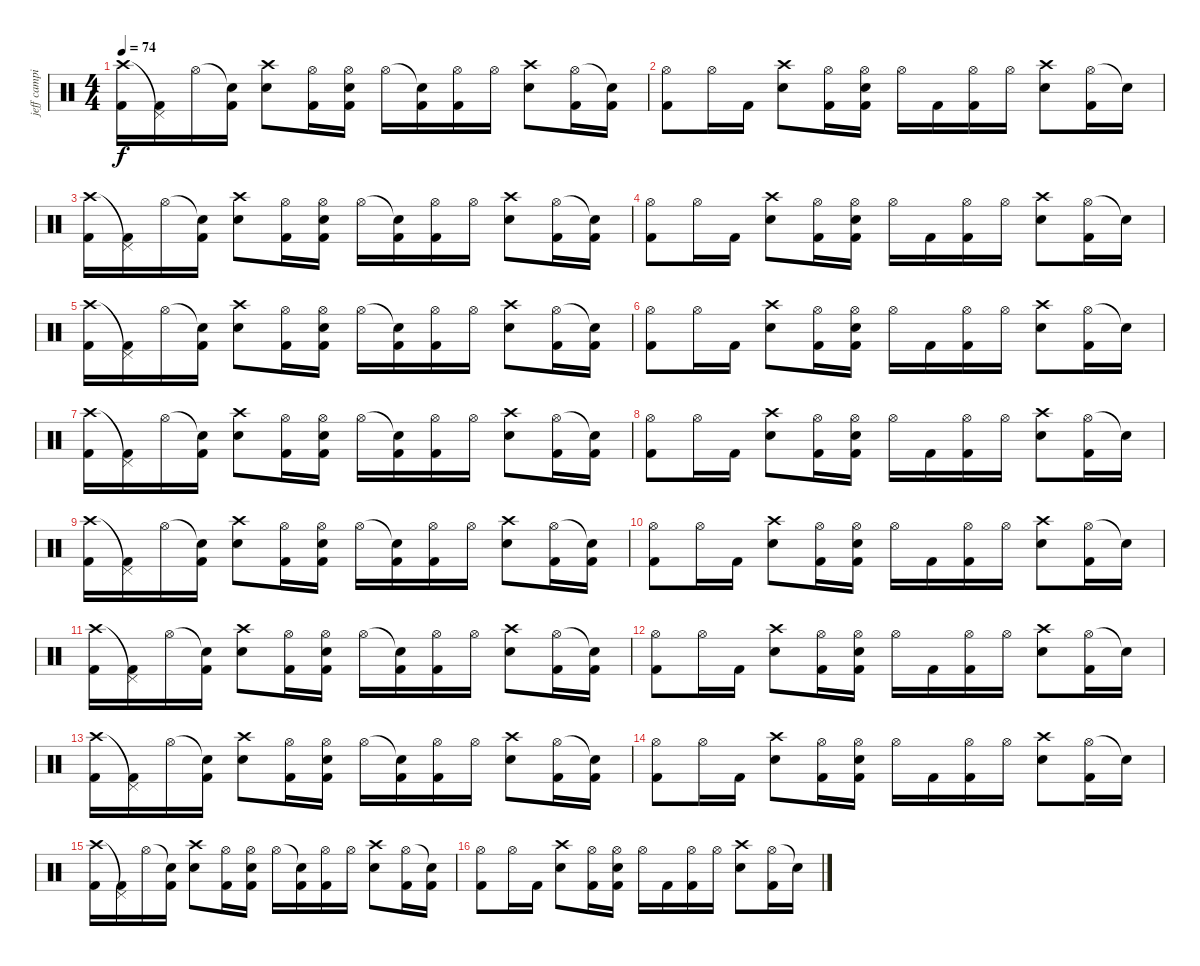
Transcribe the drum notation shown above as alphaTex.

\track ("jeff campitelli" "jeff campi") {instrument percussion}
\staff {score}
\articulation defaults
\ts (4 4)
\tempo 74
\clef neutral
\ks c
("Crash high (hit)" "Kick (hit) 2").16{dy f} ("Pedal Hi-Hat (hit)"{t} "Kick (hit) 2").16 "Hi-Hat (open)".16 ("Snare (hit)"{t} "Kick (hit) 2").16 ("Crash high (hit)" "Electric Snare (hit)").8 ("Hi-Hat (open)" "Kick (hit) 2").16 ("Hi-Hat (open)" "Electric Snare (hit)" "Kick (hit) 2").16 "Hi-Hat (open)".16 ("Snare (hit)"{t} "Kick (hit) 2").16 ("Hi-Hat (open)" "Kick (hit) 2").16 "Hi-Hat (open)".16 ("Crash high (hit)" "Electric Snare (hit)").8 ("Hi-Hat (open)" "Kick (hit) 2").16 ("Snare (hit)"{t} "Kick (hit) 2").16 |
("Hi-Hat (open)" "Kick (hit) 2").8 "Hi-Hat (open)".16 "Kick (hit) 2".16 ("Crash high (hit)" "Electric Snare (hit)").8 ("Hi-Hat (open)" "Kick (hit) 2").16 ("Hi-Hat (open)" "Electric Snare (hit)" "Kick (hit) 2").16 "Hi-Hat (open)".16 "Kick (hit) 2".16 ("Hi-Hat (open)" "Kick (hit) 2").16 "Hi-Hat (open)".16 ("Crash high (hit)" "Electric Snare (hit)").8 ("Hi-Hat (open)" "Kick (hit) 2").16 "Snare (hit)"{t}.16 |
("Crash high (hit)" "Kick (hit) 2").16 ("Pedal Hi-Hat (hit)"{t} "Kick (hit) 2").16 "Hi-Hat (open)".16 ("Snare (hit)"{t} "Kick (hit) 2").16 ("Crash high (hit)" "Electric Snare (hit)").8 ("Hi-Hat (open)" "Kick (hit) 2").16 ("Hi-Hat (open)" "Electric Snare (hit)" "Kick (hit) 2").16 "Hi-Hat (open)".16 ("Snare (hit)"{t} "Kick (hit) 2").16 ("Hi-Hat (open)" "Kick (hit) 2").16 "Hi-Hat (open)".16 ("Crash high (hit)" "Electric Snare (hit)").8 ("Hi-Hat (open)" "Kick (hit) 2").16 ("Snare (hit)"{t} "Kick (hit) 2").16 |
("Hi-Hat (open)" "Kick (hit) 2").8 "Hi-Hat (open)".16 "Kick (hit) 2".16 ("Crash high (hit)" "Electric Snare (hit)").8 ("Hi-Hat (open)" "Kick (hit) 2").16 ("Hi-Hat (open)" "Electric Snare (hit)" "Kick (hit) 2").16 "Hi-Hat (open)".16 "Kick (hit) 2".16 ("Hi-Hat (open)" "Kick (hit) 2").16 "Hi-Hat (open)".16 ("Crash high (hit)" "Electric Snare (hit)").8 ("Hi-Hat (open)" "Kick (hit) 2").16 "Snare (hit)"{t}.16 |
("Crash high (hit)" "Kick (hit) 2").16 ("Pedal Hi-Hat (hit)"{t} "Kick (hit) 2").16 "Hi-Hat (open)".16 ("Snare (hit)"{t} "Kick (hit) 2").16 ("Crash high (hit)" "Electric Snare (hit)").8 ("Hi-Hat (open)" "Kick (hit) 2").16 ("Hi-Hat (open)" "Electric Snare (hit)" "Kick (hit) 2").16 "Hi-Hat (open)".16 ("Snare (hit)"{t} "Kick (hit) 2").16 ("Hi-Hat (open)" "Kick (hit) 2").16 "Hi-Hat (open)".16 ("Crash high (hit)" "Electric Snare (hit)").8 ("Hi-Hat (open)" "Kick (hit) 2").16 ("Snare (hit)"{t} "Kick (hit) 2").16 |
("Hi-Hat (open)" "Kick (hit) 2").8 "Hi-Hat (open)".16 "Kick (hit) 2".16 ("Crash high (hit)" "Electric Snare (hit)").8 ("Hi-Hat (open)" "Kick (hit) 2").16 ("Hi-Hat (open)" "Electric Snare (hit)" "Kick (hit) 2").16 "Hi-Hat (open)".16 "Kick (hit) 2".16 ("Hi-Hat (open)" "Kick (hit) 2").16 "Hi-Hat (open)".16 ("Crash high (hit)" "Electric Snare (hit)").8 ("Hi-Hat (open)" "Kick (hit) 2").16 "Snare (hit)"{t}.16 |
("Crash high (hit)" "Kick (hit) 2").16 ("Pedal Hi-Hat (hit)"{t} "Kick (hit) 2").16 "Hi-Hat (open)".16 ("Snare (hit)"{t} "Kick (hit) 2").16 ("Crash high (hit)" "Electric Snare (hit)").8 ("Hi-Hat (open)" "Kick (hit) 2").16 ("Hi-Hat (open)" "Electric Snare (hit)" "Kick (hit) 2").16 "Hi-Hat (open)".16 ("Snare (hit)"{t} "Kick (hit) 2").16 ("Hi-Hat (open)" "Kick (hit) 2").16 "Hi-Hat (open)".16 ("Crash high (hit)" "Electric Snare (hit)").8 ("Hi-Hat (open)" "Kick (hit) 2").16 ("Snare (hit)"{t} "Kick (hit) 2").16 |
("Hi-Hat (open)" "Kick (hit) 2").8 "Hi-Hat (open)".16 "Kick (hit) 2".16 ("Crash high (hit)" "Electric Snare (hit)").8 ("Hi-Hat (open)" "Kick (hit) 2").16 ("Hi-Hat (open)" "Electric Snare (hit)" "Kick (hit) 2").16 "Hi-Hat (open)".16 "Kick (hit) 2".16 ("Hi-Hat (open)" "Kick (hit) 2").16 "Hi-Hat (open)".16 ("Crash high (hit)" "Electric Snare (hit)").8 ("Hi-Hat (open)" "Kick (hit) 2").16 "Snare (hit)"{t}.16 |
("Crash high (hit)" "Kick (hit) 2").16 ("Pedal Hi-Hat (hit)"{t} "Kick (hit) 2").16 "Hi-Hat (open)".16 ("Snare (hit)"{t} "Kick (hit) 2").16 ("Crash high (hit)" "Electric Snare (hit)").8 ("Hi-Hat (open)" "Kick (hit) 2").16 ("Hi-Hat (open)" "Electric Snare (hit)" "Kick (hit) 2").16 "Hi-Hat (open)".16 ("Snare (hit)"{t} "Kick (hit) 2").16 ("Hi-Hat (open)" "Kick (hit) 2").16 "Hi-Hat (open)".16 ("Crash high (hit)" "Electric Snare (hit)").8 ("Hi-Hat (open)" "Kick (hit) 2").16 ("Snare (hit)"{t} "Kick (hit) 2").16 |
("Hi-Hat (open)" "Kick (hit) 2").8 "Hi-Hat (open)".16 "Kick (hit) 2".16 ("Crash high (hit)" "Electric Snare (hit)").8 ("Hi-Hat (open)" "Kick (hit) 2").16 ("Hi-Hat (open)" "Electric Snare (hit)" "Kick (hit) 2").16 "Hi-Hat (open)".16 "Kick (hit) 2".16 ("Hi-Hat (open)" "Kick (hit) 2").16 "Hi-Hat (open)".16 ("Crash high (hit)" "Electric Snare (hit)").8 ("Hi-Hat (open)" "Kick (hit) 2").16 "Snare (hit)"{t}.16 |
("Crash high (hit)" "Kick (hit) 2").16 ("Pedal Hi-Hat (hit)"{t} "Kick (hit) 2").16 "Hi-Hat (open)".16 ("Snare (hit)"{t} "Kick (hit) 2").16 ("Crash high (hit)" "Electric Snare (hit)").8 ("Hi-Hat (open)" "Kick (hit) 2").16 ("Hi-Hat (open)" "Electric Snare (hit)" "Kick (hit) 2").16 "Hi-Hat (open)".16 ("Snare (hit)"{t} "Kick (hit) 2").16 ("Hi-Hat (open)" "Kick (hit) 2").16 "Hi-Hat (open)".16 ("Crash high (hit)" "Electric Snare (hit)").8 ("Hi-Hat (open)" "Kick (hit) 2").16 ("Snare (hit)"{t} "Kick (hit) 2").16 |
("Hi-Hat (open)" "Kick (hit) 2").8 "Hi-Hat (open)".16 "Kick (hit) 2".16 ("Crash high (hit)" "Electric Snare (hit)").8 ("Hi-Hat (open)" "Kick (hit) 2").16 ("Hi-Hat (open)" "Electric Snare (hit)" "Kick (hit) 2").16 "Hi-Hat (open)".16 "Kick (hit) 2".16 ("Hi-Hat (open)" "Kick (hit) 2").16 "Hi-Hat (open)".16 ("Crash high (hit)" "Electric Snare (hit)").8 ("Hi-Hat (open)" "Kick (hit) 2").16 "Snare (hit)"{t}.16 |
("Crash high (hit)" "Kick (hit) 2").16 ("Pedal Hi-Hat (hit)"{t} "Kick (hit) 2").16 "Hi-Hat (open)".16 ("Snare (hit)"{t} "Kick (hit) 2").16 ("Crash high (hit)" "Electric Snare (hit)").8 ("Hi-Hat (open)" "Kick (hit) 2").16 ("Hi-Hat (open)" "Electric Snare (hit)" "Kick (hit) 2").16 "Hi-Hat (open)".16 ("Snare (hit)"{t} "Kick (hit) 2").16 ("Hi-Hat (open)" "Kick (hit) 2").16 "Hi-Hat (open)".16 ("Crash high (hit)" "Electric Snare (hit)").8 ("Hi-Hat (open)" "Kick (hit) 2").16 ("Snare (hit)"{t} "Kick (hit) 2").16 |
("Hi-Hat (open)" "Kick (hit) 2").8 "Hi-Hat (open)".16 "Kick (hit) 2".16 ("Crash high (hit)" "Electric Snare (hit)").8 ("Hi-Hat (open)" "Kick (hit) 2").16 ("Hi-Hat (open)" "Electric Snare (hit)" "Kick (hit) 2").16 "Hi-Hat (open)".16 "Kick (hit) 2".16 ("Hi-Hat (open)" "Kick (hit) 2").16 "Hi-Hat (open)".16 ("Crash high (hit)" "Electric Snare (hit)").8 ("Hi-Hat (open)" "Kick (hit) 2").16 "Snare (hit)"{t}.16 |
("Crash high (hit)" "Kick (hit) 2").16 ("Pedal Hi-Hat (hit)"{t} "Kick (hit) 2").16 "Hi-Hat (open)".16 ("Snare (hit)"{t} "Kick (hit) 2").16 ("Crash high (hit)" "Electric Snare (hit)").8 ("Hi-Hat (open)" "Kick (hit) 2").16 ("Hi-Hat (open)" "Electric Snare (hit)" "Kick (hit) 2").16 "Hi-Hat (open)".16 ("Snare (hit)"{t} "Kick (hit) 2").16 ("Hi-Hat (open)" "Kick (hit) 2").16 "Hi-Hat (open)".16 ("Crash high (hit)" "Electric Snare (hit)").8 ("Hi-Hat (open)" "Kick (hit) 2").16 ("Snare (hit)"{t} "Kick (hit) 2").16 |
("Hi-Hat (open)" "Kick (hit) 2").8 "Hi-Hat (open)".16 "Kick (hit) 2".16 ("Crash high (hit)" "Electric Snare (hit)").8 ("Hi-Hat (open)" "Kick (hit) 2").16 ("Hi-Hat (open)" "Electric Snare (hit)" "Kick (hit) 2").16 "Hi-Hat (open)".16 "Kick (hit) 2".16 ("Hi-Hat (open)" "Kick (hit) 2").16 "Hi-Hat (open)".16 ("Crash high (hit)" "Electric Snare (hit)").8 ("Hi-Hat (open)" "Kick (hit) 2").16 "Snare (hit)"{t}.16
